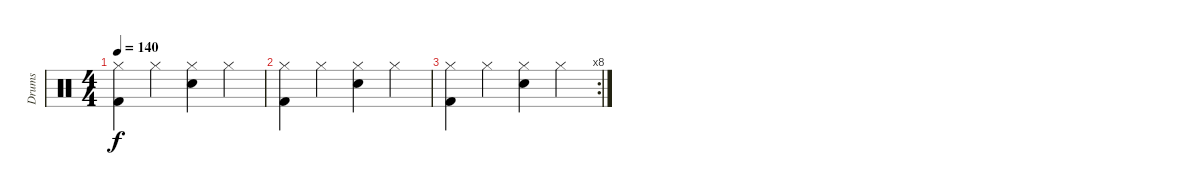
\track ("Drums" "Drums") {instrument percussion}
\staff {score}
\articulation defaults
\ts (4 4)
\tempo 140
\clef neutral
\ks c
("Hi-Hat (closed)" "Kick (hit) 2").4{dy f} "Hi-Hat (closed)".4 ("Hi-Hat (closed)" "Snare (hit) 2").4 "Hi-Hat (closed)".4 |
("Hi-Hat (closed)" "Kick (hit) 2").4 "Hi-Hat (closed)".4 ("Hi-Hat (closed)" "Snare (hit) 2").4 "Hi-Hat (closed)".4 |
\rc 8
("Hi-Hat (closed)" "Kick (hit) 2").4 "Hi-Hat (closed)".4 ("Hi-Hat (closed)" "Snare (hit) 2").4 "Hi-Hat (closed)".4
